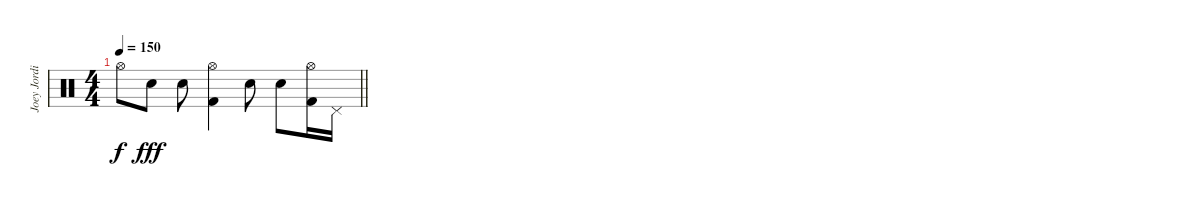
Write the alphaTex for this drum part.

\track ("Joey Jordison" "Joey Jordi") {instrument percussion}
\staff {score}
\articulation defaults
\ts (4 4)
\tempo 150
\clef neutral
\barLineRight lightlight
\ks c "Hi-Hat (open)".8{dy f} "Electric Snare (hit)".8{dy fff} "Electric Snare (hit)".8
("Hi-Hat (open)" "Kick (hit) 2").4 "Electric Snare (hit)".8 "Electric Snare (hit)".8 ("Hi-Hat (open)" "Kick (hit) 2").16 "Pedal Hi-Hat (hit)".16
